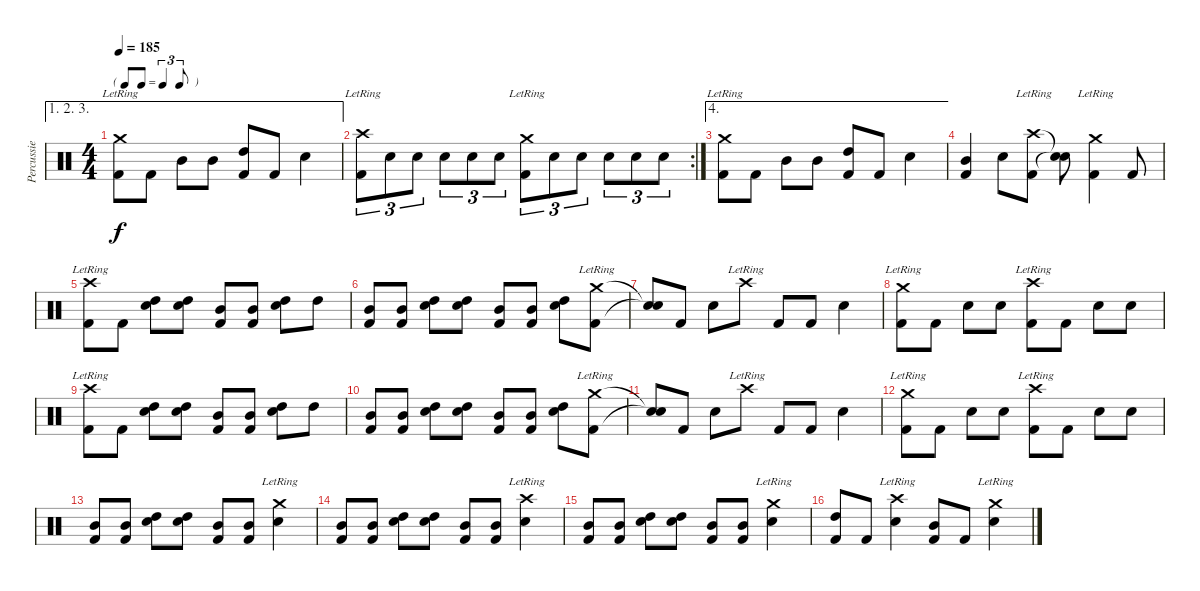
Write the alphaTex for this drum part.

\track ("Percussie" "Percussie") {instrument percussion}
\staff {score}
\articulation defaults
\ae (1 2 3)
\ts (4 4)
\tf triplet8th
\tempo 185
\clef neutral
\ks c
("Crash medium (hit)"{lr} "Kick (hit) 2").8{dy f} "Kick (hit) 2".8 "Mid Tom (hit)".8 "Mid Tom (hit)".8 ("High Tom (hit)" "Kick (hit) 2").8 "Kick (hit) 2".8 "Snare (hit) 2".4 |
\rc 2
("Crash high (hit)"{lr} "Kick (hit) 2").8{tu (3 2)} "Snare (hit) 2".8{tu (3 2)} "Snare (hit) 2".8{tu (3 2)} "Snare (hit) 2".8{tu (3 2)} "Snare (hit) 2".8{tu (3 2)} "Snare (hit) 2".8{tu (3 2)} ("Crash medium (hit)"{lr} "Kick (hit) 2").8{tu (3 2)} "Snare (hit) 2".8{tu (3 2)} "Snare (hit) 2".8{tu (3 2)} "Snare (hit) 2".8{tu (3 2)} "Snare (hit) 2".8{tu (3 2)} "Snare (hit) 2".8{tu (3 2)} |
\ae 4
("Crash medium (hit)"{lr} "Kick (hit) 2").8 "Kick (hit) 2".8 "Mid Tom (hit)".8 "Mid Tom (hit)".8 ("High Tom (hit)" "Kick (hit) 2").8 "Kick (hit) 2".8 "Snare (hit) 2".4 |
("Mid Tom (hit)" "Kick (hit) 2").4 "Snare (hit) 2".8 ("Crash high (hit)"{lr} "Kick (hit) 2").8 ("Snare (hit)"{t} "Snare (hit)"{t}).8 ("Crash medium (hit)"{lr} "Kick (hit) 2").4 "Kick (hit) 2".8 |
("Crash high (hit)"{lr} "Kick (hit) 2").8 "Kick (hit) 2".8 ("High Tom (hit)" "Snare (hit) 2").8 ("High Tom (hit)" "Snare (hit) 2").8 ("Mid Tom (hit)" "Kick (hit) 2").8 ("Mid Tom (hit)" "Kick (hit) 2").8 ("High Tom (hit)" "Snare (hit) 2").8 "High Tom (hit)".8 |
("Mid Tom (hit)" "Kick (hit) 2").8 ("Mid Tom (hit)" "Kick (hit) 2").8 ("High Tom (hit)" "Snare (hit) 2").8 ("High Tom (hit)" "Snare (hit) 2").8 ("Mid Tom (hit)" "Kick (hit) 2").8 ("Mid Tom (hit)" "Kick (hit) 2").8 ("High Tom (hit)" "Snare (hit) 2").8 ("Crash medium (hit)"{lr} "Kick (hit) 2").8 |
("Snare (hit)"{t} "Snare (hit)"{t}).8 "Kick (hit) 2".8 "Snare (hit) 2".8 "Crash high (hit)"{lr}.8 "Kick (hit) 2".8 "Kick (hit) 2".8 "Snare (hit) 2".4 |
("Crash medium (hit)"{lr} "Kick (hit) 2").8 "Kick (hit) 2".8 "Snare (hit) 2".8 "Snare (hit) 2".8 ("Crash high (hit)"{lr} "Kick (hit) 2").8 "Kick (hit) 2".8 "Snare (hit) 2".8 "Snare (hit) 2".8 |
("Crash high (hit)"{lr} "Kick (hit) 2").8 "Kick (hit) 2".8 ("High Tom (hit)" "Snare (hit) 2").8 ("High Tom (hit)" "Snare (hit) 2").8 ("Mid Tom (hit)" "Kick (hit) 2").8 ("Mid Tom (hit)" "Kick (hit) 2").8 ("High Tom (hit)" "Snare (hit) 2").8 "High Tom (hit)".8 |
("Mid Tom (hit)" "Kick (hit) 2").8 ("Mid Tom (hit)" "Kick (hit) 2").8 ("High Tom (hit)" "Snare (hit) 2").8 ("High Tom (hit)" "Snare (hit) 2").8 ("Mid Tom (hit)" "Kick (hit) 2").8 ("Mid Tom (hit)" "Kick (hit) 2").8 ("High Tom (hit)" "Snare (hit) 2").8 ("Crash medium (hit)"{lr} "Kick (hit) 2").8 |
("Snare (hit)"{t} "Snare (hit)"{t}).8 "Kick (hit) 2".8 "Snare (hit) 2".8 "Crash high (hit)"{lr}.8 "Kick (hit) 2".8 "Kick (hit) 2".8 "Snare (hit) 2".4 |
("Crash medium (hit)"{lr} "Kick (hit) 2").8 "Kick (hit) 2".8 "Snare (hit) 2".8 "Snare (hit) 2".8 ("Crash high (hit)"{lr} "Kick (hit) 2").8 "Kick (hit) 2".8 "Snare (hit) 2".8 "Snare (hit) 2".8 |
("Mid Tom (hit)" "Kick (hit) 2").8 ("Mid Tom (hit)" "Kick (hit) 2").8 ("High Tom (hit)" "Snare (hit) 2").8 ("High Tom (hit)" "Snare (hit) 2").8 ("Mid Tom (hit)" "Kick (hit) 2").8 ("Mid Tom (hit)" "Kick (hit) 2").8 ("Crash medium (hit)"{lr} "Snare (hit) 2").4 |
("Mid Tom (hit)" "Kick (hit) 2").8 ("Mid Tom (hit)" "Kick (hit) 2").8 ("High Tom (hit)" "Snare (hit) 2").8 ("High Tom (hit)" "Snare (hit) 2").8 ("Mid Tom (hit)" "Kick (hit) 2").8 ("Mid Tom (hit)" "Kick (hit) 2").8 ("Crash high (hit)"{lr} "Snare (hit) 2").4 |
("Mid Tom (hit)" "Kick (hit) 2").8 ("Mid Tom (hit)" "Kick (hit) 2").8 ("High Tom (hit)" "Snare (hit) 2").8 ("High Tom (hit)" "Snare (hit) 2").8 ("Mid Tom (hit)" "Kick (hit) 2").8 ("Mid Tom (hit)" "Kick (hit) 2").8 ("Crash medium (hit)"{lr} "Snare (hit) 2").4 |
("High Tom (hit)" "Kick (hit) 2").8 "Kick (hit) 2".8 ("Crash high (hit)"{lr} "Snare (hit) 2").4 ("Mid Tom (hit)" "Kick (hit) 2").8 "Kick (hit) 2".8 ("Crash medium (hit)"{lr} "Snare (hit) 2").4
